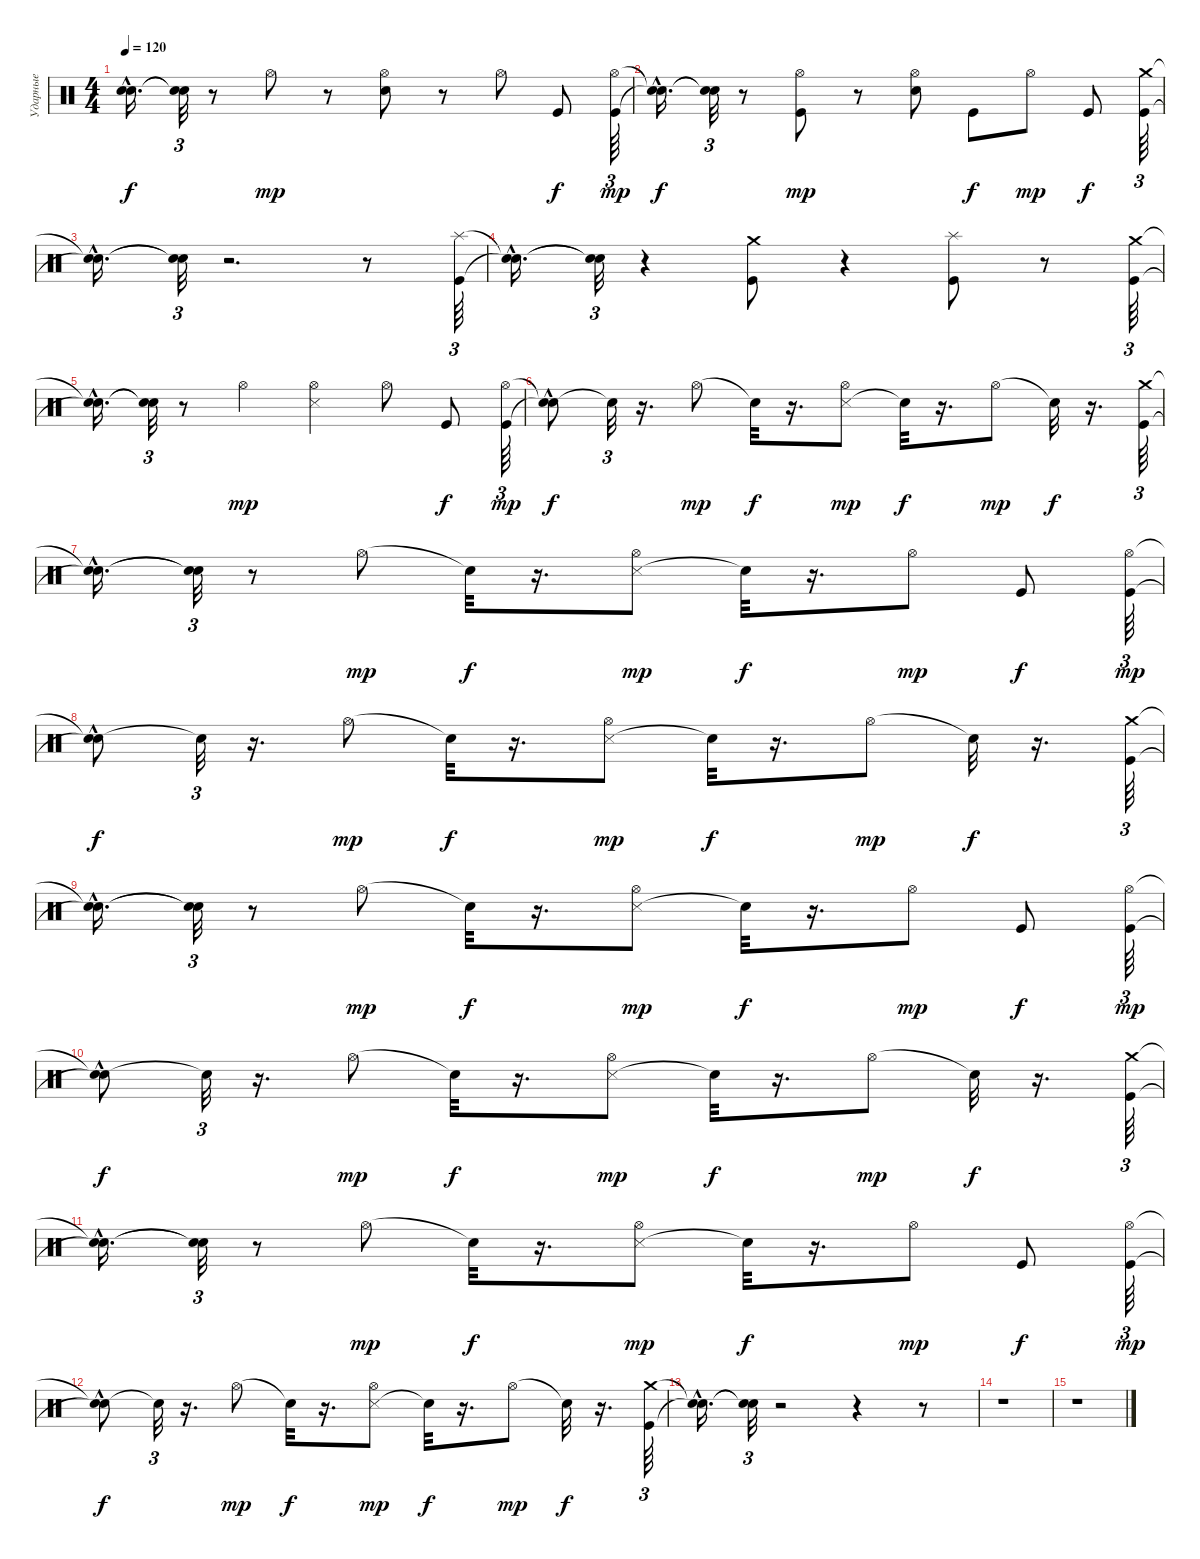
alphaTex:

\track ("Ударные" "Ударные") {instrument percussion}
\staff {score}
\articulation defaults
\ts (4 4)
\tempo 120
\clef neutral
\ks c
("Snare (hit)"{hac t} "Snare (hit)"{hac t}).16{d dy f} ("Snare (hit)"{t} "Snare (hit)"{t}).32{tu (3 2)} r.8 "Hi-Hat (open)".8{dy mp} r.8 ("Snare (hit) 2" "Hi-Hat (open)").8 r.8 "Hi-Hat (open)".8 "Kick (hit)".8{dy f} ("Kick (hit)" "Hi-Hat (open)").64{tu (3 2) dy mp} |
("Snare (hit)"{hac t} "Snare (hit)"{hac t}).16{d dy f} ("Snare (hit)"{t} "Snare (hit)"{t}).32{tu (3 2)} r.8 ("Kick (hit)" "Hi-Hat (open)").8{dy mp} r.8 ("Snare (hit) 2" "Hi-Hat (open)").8 "Kick (hit)".8{dy f} "Hi-Hat (open)".8{dy mp} "Kick (hit)".8{dy f} ("Crash medium (hit)" "Kick (hit)").64{tu (3 2)} |
("Snare (hit)"{hac t} "Snare (hit)"{hac t}).16{d} ("Snare (hit)"{t} "Snare (hit)"{t}).32{tu (3 2)} r.2{d} r.8 ("Kick (hit)" "Splash (hit)").64{tu (3 2)} |
("Snare (hit)"{hac t} "Snare (hit)"{hac t}).16{d} ("Snare (hit)"{t} "Snare (hit)"{t}).32{tu (3 2)} r.4 ("Crash medium (hit)" "Kick (hit)").8 r.4 ("Kick (hit)" "Splash (hit)").8 r.8 ("Kick (hit)" "Crash medium (hit)").64{tu (3 2)} |
("Snare (hit)"{hac t} "Snare (hit)"{hac t}).16{d} ("Snare (hit)"{t} "Snare (hit)"{t}).32{tu (3 2)} r.8 "Hi-Hat (open)".4{dy mp} ("Snare (side stick) 3" "Hi-Hat (open)").4 "Hi-Hat (open)".8 "Kick (hit)".8{dy f} ("Kick (hit)" "Hi-Hat (open)").64{tu (3 2) dy mp} |
("Snare (hit)"{hac t} "Snare (hit)"{t}).8{dy f} "Snare (hit)"{t}.32{tu (3 2)} r.16{d} "Hi-Hat (open)".8{dy mp} "Snare (hit)"{t}.32{dy f} r.16{d} ("Snare (side stick) 3" "Hi-Hat (open)").8{dy mp} "Snare (hit)"{t}.32{dy f} r.16{d} "Hi-Hat (open)".8{dy mp} "Snare (hit)"{t}.32{dy f} r.16{d} ("Crash medium (hit)" "Kick (hit)").64{tu (3 2)} |
("Snare (hit)"{hac t} "Snare (hit)"{hac t}).16{d} ("Snare (hit)"{t} "Snare (hit)"{t}).32{tu (3 2)} r.8 "Hi-Hat (open)".8{dy mp} "Snare (hit)"{t}.32{dy f} r.16{d} ("Snare (side stick) 3" "Hi-Hat (open)").8{dy mp} "Snare (hit)"{t}.32{dy f} r.16{d} "Hi-Hat (open)".8{dy mp} "Kick (hit)".8{dy f} ("Kick (hit)" "Hi-Hat (open)").64{tu (3 2) dy mp} |
("Snare (hit)"{hac t} "Snare (hit)"{t}).8{dy f} "Snare (hit)"{t}.32{tu (3 2)} r.16{d} "Hi-Hat (open)".8{dy mp} "Snare (hit)"{t}.32{dy f} r.16{d} ("Snare (side stick) 3" "Hi-Hat (open)").8{dy mp} "Snare (hit)"{t}.32{dy f} r.16{d} "Hi-Hat (open)".8{dy mp} "Snare (hit)"{t}.32{dy f} r.16{d} ("Kick (hit)" "Crash medium (hit)").64{tu (3 2)} |
("Snare (hit)"{hac t} "Snare (hit)"{hac t}).16{d} ("Snare (hit)"{t} "Snare (hit)"{t}).32{tu (3 2)} r.8 "Hi-Hat (open)".8{dy mp} "Snare (hit)"{t}.32{dy f} r.16{d} ("Snare (side stick) 3" "Hi-Hat (open)").8{dy mp} "Snare (hit)"{t}.32{dy f} r.16{d} "Hi-Hat (open)".8{dy mp} "Kick (hit)".8{dy f} ("Kick (hit)" "Hi-Hat (open)").64{tu (3 2) dy mp} |
("Snare (hit)"{hac t} "Snare (hit)"{t}).8{dy f} "Snare (hit)"{t}.32{tu (3 2)} r.16{d} "Hi-Hat (open)".8{dy mp} "Snare (hit)"{t}.32{dy f} r.16{d} ("Snare (side stick) 3" "Hi-Hat (open)").8{dy mp} "Snare (hit)"{t}.32{dy f} r.16{d} "Hi-Hat (open)".8{dy mp} "Snare (hit)"{t}.32{dy f} r.16{d} ("Kick (hit)" "Crash medium (hit)").64{tu (3 2)} |
("Snare (hit)"{hac t} "Snare (hit)"{hac t}).16{d} ("Snare (hit)"{t} "Snare (hit)"{t}).32{tu (3 2)} r.8 "Hi-Hat (open)".8{dy mp} "Snare (hit)"{t}.32{dy f} r.16{d} ("Snare (side stick) 3" "Hi-Hat (open)").8{dy mp} "Snare (hit)"{t}.32{dy f} r.16{d} "Hi-Hat (open)".8{dy mp} "Kick (hit)".8{dy f} ("Kick (hit)" "Hi-Hat (open)").64{tu (3 2) dy mp} |
("Snare (hit)"{hac t} "Snare (hit)"{t}).8{dy f} "Snare (hit)"{t}.32{tu (3 2)} r.16{d} "Hi-Hat (open)".8{dy mp} "Snare (hit)"{t}.32{dy f} r.16{d} ("Snare (side stick) 3" "Hi-Hat (open)").8{dy mp} "Snare (hit)"{t}.32{dy f} r.16{d} "Hi-Hat (open)".8{dy mp} "Snare (hit)"{t}.32{dy f} r.16{d} ("Kick (hit)" "Crash medium (hit)").64{tu (3 2)} |
("Snare (hit)"{hac t} "Snare (hit)"{hac t}).16{d} ("Snare (hit)"{t} "Snare (hit)"{t}).32{tu (3 2)} r.2 r.4 r.8 |
r.1 |
r.1
